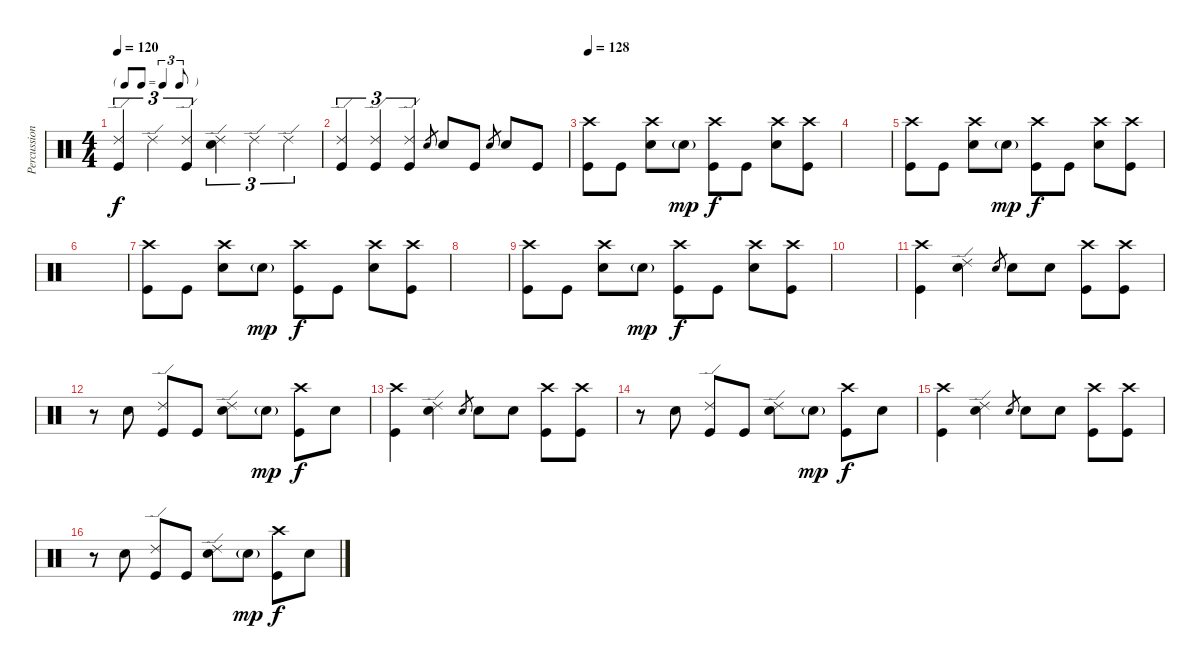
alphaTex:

\track ("Percussion" "Percussion") {instrument percussion}
\staff {score}
\articulation defaults
\ts (4 4)
\tf triplet8th
\tempo 120
\clef neutral
\ks c
("Ride (edge) 2" "Kick (hit)").4{tu (3 2) dy f} "Ride (edge) 2".4{tu (3 2)} ("Ride (edge) 2" "Kick (hit)").4{tu (3 2)} ("Ride (edge) 2" "Electric Snare (hit)").4{tu (3 2)} "Ride (edge) 2".4{tu (3 2)} "Ride (edge) 2".4{tu (3 2)} |
("Ride (edge) 2" "Kick (hit)").4{tu (3 2)} ("Ride (edge) 2" "Kick (hit)").4{tu (3 2)} ("Ride (edge) 2" "Kick (hit)").4{tu (3 2)} "Electric Snare (hit)".8{gr} "Electric Snare (hit)".8 "Kick (hit)".8 "Electric Snare (hit)".8{gr} "Electric Snare (hit)".8 "Kick (hit)".8 |
\tempo 128
("Crash high (hit)" "Kick (hit)").8 "Kick (hit)".8 ("Crash high (hit)" "Electric Snare (hit)").8 "Electric Snare (hit)"{g}.8{dy mp} ("Crash high (hit)" "Kick (hit)").8{dy f} "Kick (hit)".8 ("Crash high (hit)" "Electric Snare (hit)").8 ("Crash high (hit)" "Kick (hit)").8 |
|
("Crash high (hit)" "Kick (hit)").8 "Kick (hit)".8 ("Crash high (hit)" "Electric Snare (hit)").8 "Electric Snare (hit)"{g}.8{dy mp} ("Crash high (hit)" "Kick (hit)").8{dy f} "Kick (hit)".8 ("Crash high (hit)" "Electric Snare (hit)").8 ("Crash high (hit)" "Kick (hit)").8 |
|
("Crash high (hit)" "Kick (hit)").8 "Kick (hit)".8 ("Crash high (hit)" "Electric Snare (hit)").8 "Electric Snare (hit)"{g}.8{dy mp} ("Crash high (hit)" "Kick (hit)").8{dy f} "Kick (hit)".8 ("Crash high (hit)" "Electric Snare (hit)").8 ("Crash high (hit)" "Kick (hit)").8 |
|
("Crash high (hit)" "Kick (hit)").8 "Kick (hit)".8 ("Crash high (hit)" "Electric Snare (hit)").8 "Electric Snare (hit)"{g}.8{dy mp} ("Crash high (hit)" "Kick (hit)").8{dy f} "Kick (hit)".8 ("Crash high (hit)" "Electric Snare (hit)").8 ("Crash high (hit)" "Kick (hit)").8 |
|
("Crash high (hit)" "Kick (hit)").4 ("Ride (edge) 2" "Electric Snare (hit)").4 "Electric Snare (hit)".8{gr} "Electric Snare (hit)".8 "Electric Snare (hit)".8 ("Crash high (hit)" "Kick (hit)").8 ("Crash high (hit)" "Kick (hit)").8 |
r.8 "Electric Snare (hit)".8 ("Ride (edge) 2" "Kick (hit)").8 "Kick (hit)".8 ("Ride (edge) 2" "Electric Snare (hit)").8 "Electric Snare (hit)"{g}.8{dy mp} ("Crash high (hit)" "Kick (hit)").8{dy f} "Electric Snare (hit)".8 |
("Crash high (hit)" "Kick (hit)").4 ("Ride (edge) 2" "Electric Snare (hit)").4 "Electric Snare (hit)".8{gr} "Electric Snare (hit)".8 "Electric Snare (hit)".8 ("Crash high (hit)" "Kick (hit)").8 ("Crash high (hit)" "Kick (hit)").8 |
r.8 "Electric Snare (hit)".8 ("Ride (edge) 2" "Kick (hit)").8 "Kick (hit)".8 ("Ride (edge) 2" "Electric Snare (hit)").8 "Electric Snare (hit)"{g}.8{dy mp} ("Crash high (hit)" "Kick (hit)").8{dy f} "Electric Snare (hit)".8 |
("Crash high (hit)" "Kick (hit)").4 ("Ride (edge) 2" "Electric Snare (hit)").4 "Electric Snare (hit)".8{gr} "Electric Snare (hit)".8 "Electric Snare (hit)".8 ("Crash high (hit)" "Kick (hit)").8 ("Crash high (hit)" "Kick (hit)").8 |
r.8 "Electric Snare (hit)".8 ("Ride (edge) 2" "Kick (hit)").8 "Kick (hit)".8 ("Ride (edge) 2" "Electric Snare (hit)").8 "Electric Snare (hit)"{g}.8{dy mp} ("Crash high (hit)" "Kick (hit)").8{dy f} "Electric Snare (hit)".8
